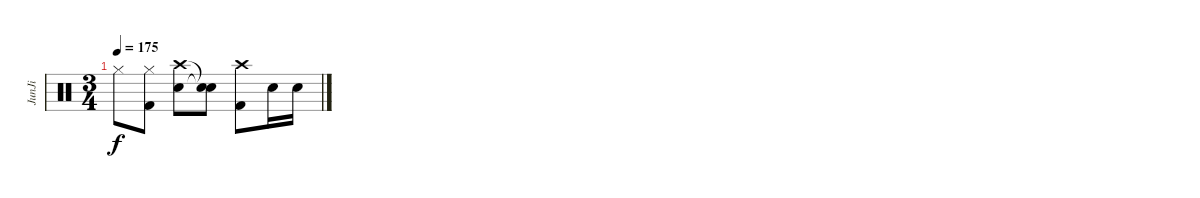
\track ("JunJi" "JunJi") {instrument percussion}
\staff {score}
\articulation defaults
\ts (3 4)
\tempo 175
\clef neutral
\ks c "Hi-Hat (closed)".8{dy f}
("Hi-Hat (closed)" "Kick (hit) 2").8 ("Crash high (hit)" "Snare (hit) 2").8 ("Snare (hit)"{t} "Snare (hit)"{t}).8 ("Crash high (hit)" "Kick (hit) 2").8 "Snare (hit) 2".16 "Snare (hit) 2".16
